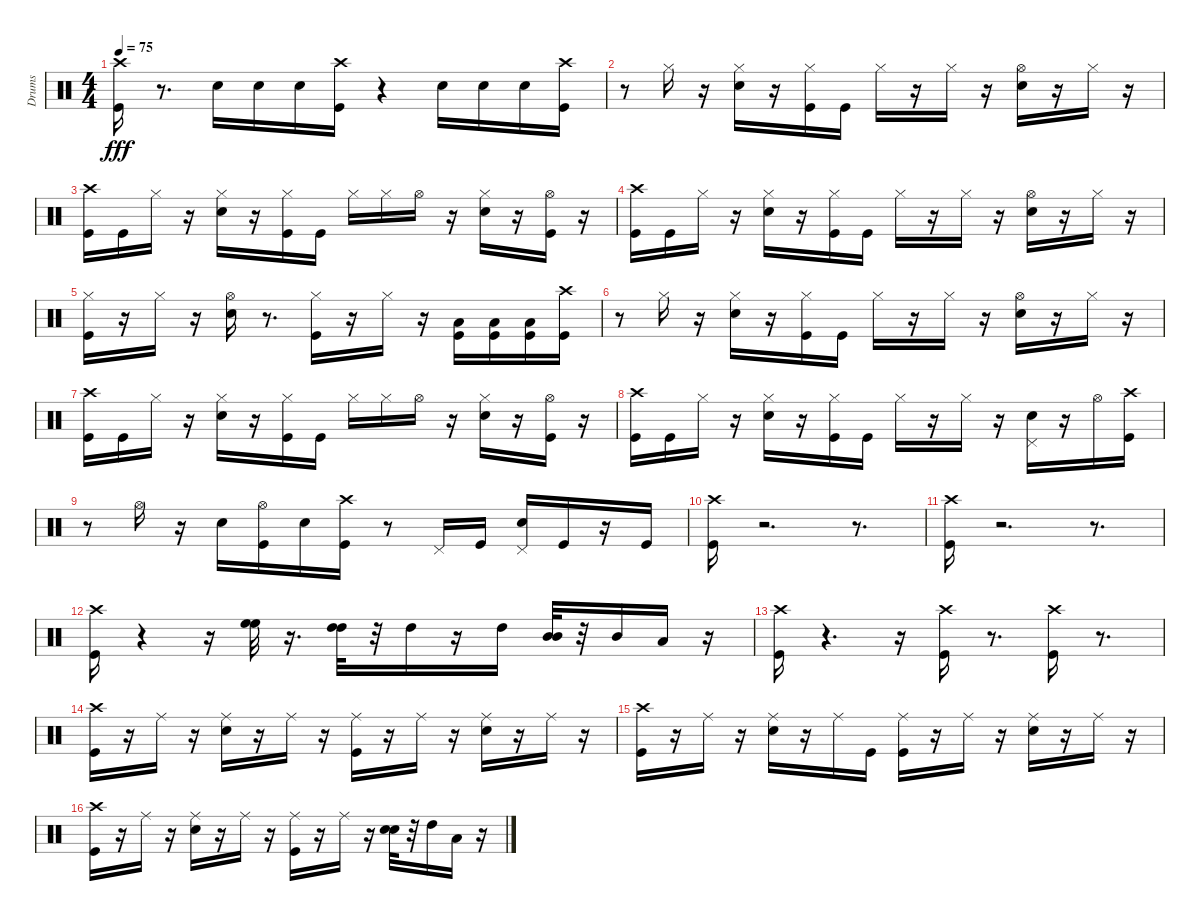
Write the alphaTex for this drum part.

\track ("Drums" "Drums") {instrument percussion}
\staff {score}
\articulation defaults
\ts (4 4)
\tempo 75
\clef neutral
\ks c
("Crash high (hit)" "Kick (hit)").16{dy fff} r.8{d} "Snare (hit) 2".16 "Snare (hit) 2".16 "Snare (hit) 2".16 ("Crash high (hit)" "Kick (hit)").16 r.4 "Snare (hit) 2".16 "Snare (hit) 2".16 "Snare (hit) 2".16 ("Crash high (hit)" "Kick (hit)").16 |
r.8 "Hi-Hat (closed)".16 r.16 ("Hi-Hat (closed)" "Snare (hit) 2").16 r.16 ("Hi-Hat (closed)" "Kick (hit)").16 "Kick (hit)".16 "Hi-Hat (closed)".16 r.16 "Hi-Hat (closed)".16 r.16 ("Hi-Hat (open)" "Snare (hit) 2").16 r.16 "Hi-Hat (closed)".16 r.16 |
("Kick (hit)" "Crash high (hit)").16 "Kick (hit)".16 "Hi-Hat (closed)".16 r.16 ("Snare (hit) 2" "Hi-Hat (closed)").16 r.16 ("Hi-Hat (closed)" "Kick (hit)").16 "Kick (hit)".16 "Hi-Hat (closed)".16 "Hi-Hat (closed)".16 "Hi-Hat (open)".16 r.16 ("Snare (hit) 2" "Hi-Hat (closed)").16 r.16 ("Hi-Hat (open)" "Kick (hit)").16 r.16 |
("Kick (hit)" "Crash high (hit)").16 "Kick (hit)".16 "Hi-Hat (closed)".16 r.16 ("Snare (hit) 2" "Hi-Hat (closed)").16 r.16 ("Kick (hit)" "Hi-Hat (closed)").16 "Kick (hit)".16 "Hi-Hat (closed)".16 r.16 "Hi-Hat (closed)".16 r.16 ("Snare (hit) 2" "Hi-Hat (open)").16 r.16 "Hi-Hat (closed)".16 r.16 |
("Kick (hit)" "Hi-Hat (closed)").16 r.16 "Hi-Hat (closed)".16 r.16 ("Snare (hit) 2" "Hi-Hat (open)").16 r.8{d} ("Kick (hit)" "Hi-Hat (closed)").16 r.16 "Hi-Hat (closed)".16 r.16 ("Kick (hit)" "Low Floor Tom (hit)").16 ("Kick (hit)" "Low Floor Tom (hit)").16 ("Kick (hit)" "Low Floor Tom (hit)").16 ("Kick (hit)" "Crash high (hit)").16 |
r.8 "Hi-Hat (closed)".16 r.16 ("Snare (hit) 2" "Hi-Hat (closed)").16 r.16 ("Kick (hit)" "Hi-Hat (closed)").16 "Kick (hit)".16 "Hi-Hat (closed)".16 r.16 "Hi-Hat (closed)".16 r.16 ("Snare (hit) 2" "Hi-Hat (open)").16 r.16 "Hi-Hat (closed)".16 r.16 |
("Crash high (hit)" "Kick (hit)").16 "Kick (hit)".16 "Hi-Hat (closed)".16 r.16 ("Hi-Hat (closed)" "Snare (hit) 2").16 r.16 ("Kick (hit)" "Hi-Hat (closed)").16 "Kick (hit)".16 "Hi-Hat (closed)".16 "Hi-Hat (closed)".16 "Hi-Hat (open)".16 r.16 ("Hi-Hat (closed)" "Snare (hit) 2").16 r.16 ("Kick (hit)" "Hi-Hat (open)").16 r.16 |
("Crash high (hit)" "Kick (hit)").16 "Kick (hit)".16 "Hi-Hat (closed)".16 r.16 ("Hi-Hat (closed)" "Snare (hit) 2").16 r.16 ("Hi-Hat (closed)" "Kick (hit)").16 "Kick (hit)".16 "Hi-Hat (closed)".16 r.16 "Hi-Hat (closed)".16 r.16 ("Snare (hit) 2" "Pedal Hi-Hat (hit)").16 r.16 "Hi-Hat (open)".16 ("Crash high (hit)" "Kick (hit)").16 |
r.8 "Hi-Hat (open)".16 r.16 "Snare (hit) 2".16 ("Hi-Hat (open)" "Kick (hit)").16 "Snare (hit) 2".16 ("Crash high (hit)" "Kick (hit)").16 r.8 "Pedal Hi-Hat (hit)".16 "Kick (hit)".16 ("Pedal Hi-Hat (hit)" "Snare (hit) 2").16 "Kick (hit)".16 r.16 "Kick (hit)".16 |
("Crash high (hit)" "Kick (hit)").16 r.2{d} r.8{d} |
("Crash high (hit)" "Kick (hit)").16 r.2{d} r.8{d} |
("Crash high (hit)" "Kick (hit)").16 r.4 r.16 ("High Floor Tom (hit)" "High Floor Tom (hit)").32 r.16{d} ("High Tom (hit)" "High Tom (hit)").32 r.32 "High Tom (hit)".16 r.16 "High Tom (hit)".16 ("Mid Tom (hit)" "Mid Tom (hit)").32 r.32 "Mid Tom (hit)".16 "Low Tom (hit)".16 r.16 |
("Crash high (hit)" "Kick (hit)").16 r.4{d} r.16 ("Crash high (hit)" "Kick (hit)").16 r.8{d} ("Crash high (hit)" "Kick (hit)").16 r.8{d} |
("Crash high (hit)" "Kick (hit)").16 r.16 "Ride (middle)".16 r.16 ("Ride (middle)" "Snare (hit) 2").16 r.16 "Ride (middle)".16 r.16 ("Ride (middle)" "Kick (hit)").16 r.16 "Ride (middle)".16 r.16 ("Ride (middle)" "Snare (hit) 2").16 r.16 "Ride (middle)".16 r.16 |
("Kick (hit)" "Crash high (hit)").16 r.16 "Ride (middle)".16 r.16 ("Snare (hit) 2" "Ride (middle)").16 r.16 "Ride (middle)".16 "Kick (hit)".16 ("Kick (hit)" "Ride (middle)").16 r.16 "Ride (middle)".16 r.16 ("Snare (hit) 2" "Ride (middle)").16 r.16 "Ride (middle)".16 r.16 |
("Kick (hit)" "Crash high (hit)").16 r.16 "Ride (middle)".16 r.16 ("Snare (hit) 2" "Ride (middle)").16 r.16 "Ride (middle)".16 r.16 ("Kick (hit)" "Ride (middle)").16 r.16 "Ride (middle)".16 r.16 ("Snare (hit) 2" "Snare (hit) 2").32 r.32 "High Tom (hit)".16 "Low Tom (hit)".16 r.16
